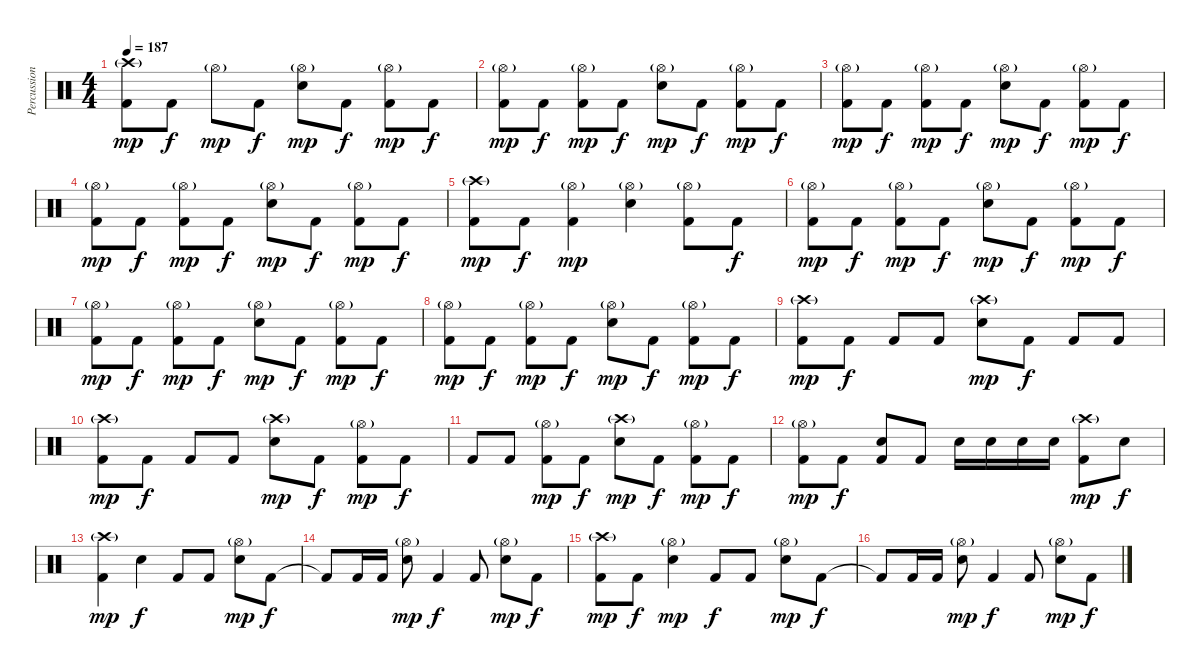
\track ("Percussion" "Percussion") {instrument percussion}
\staff {score}
\articulation defaults
\ts (4 4)
\tempo 187
\clef neutral
\ks c
("Kick (hit) 2" "Crash high (hit)"{g}).8{dy mp} "Kick (hit) 2".8{dy f} "Hi-Hat (open)"{g}.8{dy mp} "Kick (hit) 2".8{dy f} ("Snare (hit) 2" "Hi-Hat (open)"{g}).8{dy mp} "Kick (hit) 2".8{dy f} ("Kick (hit) 2" "Hi-Hat (open)"{g}).8{dy mp} "Kick (hit) 2".8{dy f} |
("Kick (hit) 2" "Hi-Hat (open)"{g}).8{dy mp} "Kick (hit) 2".8{dy f} ("Kick (hit) 2" "Hi-Hat (open)"{g}).8{dy mp} "Kick (hit) 2".8{dy f} ("Snare (hit) 2" "Hi-Hat (open)"{g}).8{dy mp} "Kick (hit) 2".8{dy f} ("Kick (hit) 2" "Hi-Hat (open)"{g}).8{dy mp} "Kick (hit) 2".8{dy f} |
("Kick (hit) 2" "Hi-Hat (open)"{g}).8{dy mp} "Kick (hit) 2".8{dy f} ("Kick (hit) 2" "Hi-Hat (open)"{g}).8{dy mp} "Kick (hit) 2".8{dy f} ("Snare (hit) 2" "Hi-Hat (open)"{g}).8{dy mp} "Kick (hit) 2".8{dy f} ("Kick (hit) 2" "Hi-Hat (open)"{g}).8{dy mp} "Kick (hit) 2".8{dy f} |
("Kick (hit) 2" "Hi-Hat (open)"{g}).8{dy mp} "Kick (hit) 2".8{dy f} ("Kick (hit) 2" "Hi-Hat (open)"{g}).8{dy mp} "Kick (hit) 2".8{dy f} ("Snare (hit) 2" "Hi-Hat (open)"{g}).8{dy mp} "Kick (hit) 2".8{dy f} ("Kick (hit) 2" "Hi-Hat (open)"{g}).8{dy mp} "Kick (hit) 2".8{dy f} |
("Kick (hit) 2" "Crash high (hit)"{g}).8{dy mp} "Kick (hit) 2".8{dy f} ("Kick (hit) 2" "Hi-Hat (open)"{g}).4{dy mp} ("Snare (hit) 2" "Hi-Hat (open)"{g}).4 ("Kick (hit) 2" "Hi-Hat (open)"{g}).8 "Kick (hit) 2".8{dy f} |
("Kick (hit) 2" "Hi-Hat (open)"{g}).8{dy mp} "Kick (hit) 2".8{dy f} ("Kick (hit) 2" "Hi-Hat (open)"{g}).8{dy mp} "Kick (hit) 2".8{dy f} ("Snare (hit) 2" "Hi-Hat (open)"{g}).8{dy mp} "Kick (hit) 2".8{dy f} ("Kick (hit) 2" "Hi-Hat (open)"{g}).8{dy mp} "Kick (hit) 2".8{dy f} |
("Kick (hit) 2" "Hi-Hat (open)"{g}).8{dy mp} "Kick (hit) 2".8{dy f} ("Kick (hit) 2" "Hi-Hat (open)"{g}).8{dy mp} "Kick (hit) 2".8{dy f} ("Snare (hit) 2" "Hi-Hat (open)"{g}).8{dy mp} "Kick (hit) 2".8{dy f} ("Kick (hit) 2" "Hi-Hat (open)"{g}).8{dy mp} "Kick (hit) 2".8{dy f} |
("Kick (hit) 2" "Hi-Hat (open)"{g}).8{dy mp} "Kick (hit) 2".8{dy f} ("Kick (hit) 2" "Hi-Hat (open)"{g}).8{dy mp} "Kick (hit) 2".8{dy f} ("Snare (hit) 2" "Hi-Hat (open)"{g}).8{dy mp} "Kick (hit) 2".8{dy f} ("Kick (hit) 2" "Hi-Hat (open)"{g}).8{dy mp} "Kick (hit) 2".8{dy f} |
("Kick (hit) 2" "Crash high (hit)"{g}).8{dy mp} "Kick (hit) 2".8{dy f} "Kick (hit) 2".8 "Kick (hit) 2".8 ("Snare (hit) 2" "Crash high (hit)"{g}).8{dy mp} "Kick (hit) 2".8{dy f} "Kick (hit) 2".8 "Kick (hit) 2".8 |
("Kick (hit) 2" "Crash high (hit)"{g}).8{dy mp} "Kick (hit) 2".8{dy f} "Kick (hit) 2".8 "Kick (hit) 2".8 ("Snare (hit) 2" "Crash high (hit)"{g}).8{dy mp} "Kick (hit) 2".8{dy f} ("Kick (hit) 2" "Hi-Hat (open)"{g}).8{dy mp} "Kick (hit) 2".8{dy f} |
"Kick (hit) 2".8 "Kick (hit) 2".8 ("Kick (hit) 2" "Hi-Hat (open)"{g}).8{dy mp} "Kick (hit) 2".8{dy f} ("Snare (hit) 2" "Crash high (hit)"{g}).8{dy mp} "Kick (hit) 2".8{dy f} ("Kick (hit) 2" "Hi-Hat (open)"{g}).8{dy mp} "Kick (hit) 2".8{dy f} |
("Kick (hit) 2" "Hi-Hat (open)"{g}).8{dy mp} "Kick (hit) 2".8{dy f} ("Kick (hit) 2" "Snare (hit) 2").8 "Kick (hit) 2".8 "Snare (hit) 2".16 "Snare (hit) 2".16 "Snare (hit) 2".16 "Snare (hit) 2".16 ("Kick (hit) 2" "Crash high (hit)"{g}).8{dy mp} "Snare (hit) 2".8{dy f} |
("Kick (hit) 2" "Crash high (hit)"{g}).4{dy mp} "Snare (hit) 2".4{dy f} "Kick (hit) 2".8 "Kick (hit) 2".8 ("Snare (hit) 2" "Hi-Hat (open)"{g}).8{dy mp} "Kick (hit) 2".8{dy f} |
"Kick (hit) 2"{t}.8 "Kick (hit) 2".16 "Kick (hit) 2".16 ("Snare (hit) 2" "Hi-Hat (open)"{g}).8{dy mp} "Kick (hit) 2".4{dy f} "Kick (hit) 2".8 ("Snare (hit) 2" "Hi-Hat (open)"{g}).8{dy mp} "Kick (hit) 2".8{dy f} |
("Kick (hit) 2" "Crash high (hit)"{g}).8{dy mp} "Kick (hit) 2".8{dy f} ("Snare (hit) 2" "Hi-Hat (open)"{g}).4{dy mp} "Kick (hit) 2".8{dy f} "Kick (hit) 2".8 ("Snare (hit) 2" "Hi-Hat (open)"{g}).8{dy mp} "Kick (hit) 2".8{dy f} |
"Kick (hit) 2"{t}.8 "Kick (hit) 2".16 "Kick (hit) 2".16 ("Snare (hit) 2" "Hi-Hat (open)"{g}).8{dy mp} "Kick (hit) 2".4{dy f} "Kick (hit) 2".8 ("Snare (hit) 2" "Hi-Hat (open)"{g}).8{dy mp} "Kick (hit) 2".8{dy f}
